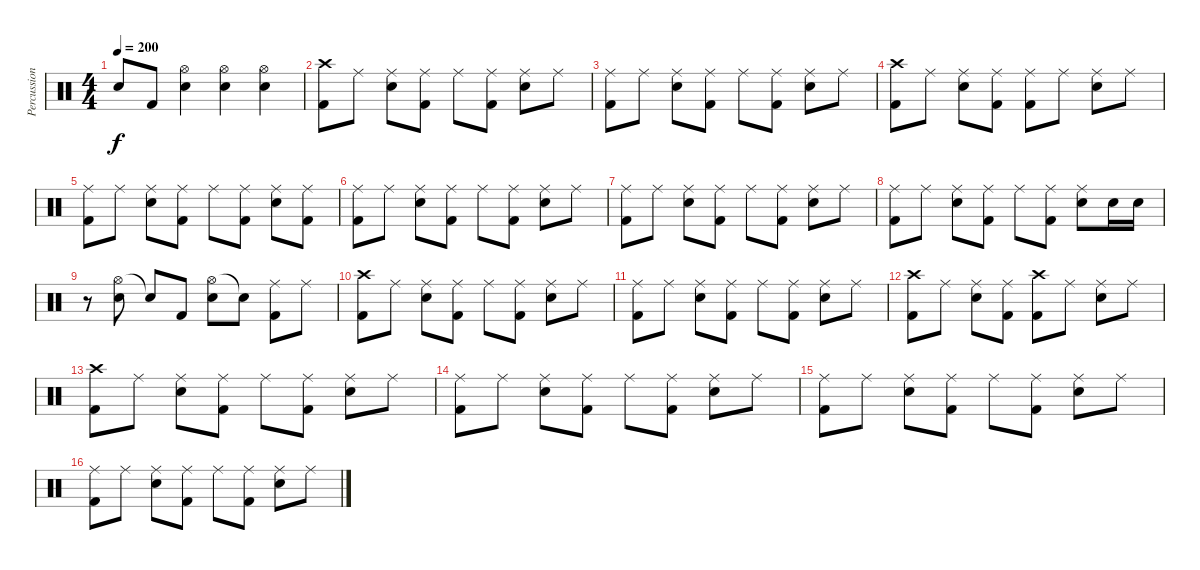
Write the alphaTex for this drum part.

\track ("Percussions" "Percussion") {instrument percussion}
\staff {score}
\articulation defaults
\ts (4 4)
\tempo 200
\clef neutral
\ks c "Snare (hit)"{t}.8{dy f} "Kick (hit) 2".8
("Hi-Hat (open)" "Electric Snare (hit)").4 ("Hi-Hat (open)" "Electric Snare (hit)").4 ("Hi-Hat (open)" "Electric Snare (hit)").4 |
("Crash high (hit)" "Kick (hit) 2").8 "Ride (middle)".8 ("Ride (middle)" "Electric Snare (hit)").8 ("Ride (middle)" "Kick (hit) 2").8 "Ride (middle)".8 ("Ride (middle)" "Kick (hit) 2").8 ("Ride (middle)" "Electric Snare (hit)").8 "Ride (middle)".8 |
("Ride (middle)" "Kick (hit) 2").8 "Ride (middle)".8 ("Ride (middle)" "Electric Snare (hit)").8 ("Ride (middle)" "Kick (hit) 2").8 "Ride (middle)".8 ("Ride (middle)" "Kick (hit) 2").8 ("Ride (middle)" "Electric Snare (hit)").8 "Ride (middle)".8 |
("Crash high (hit)" "Kick (hit) 2").8 "Ride (middle)".8 ("Ride (middle)" "Electric Snare (hit)").8 ("Ride (middle)" "Kick (hit) 2").8 ("Ride (middle)" "Kick (hit) 2").8 "Ride (middle)".8 ("Ride (middle)" "Electric Snare (hit)").8 "Ride (middle)".8 |
("Ride (middle)" "Kick (hit) 2").8 "Ride (middle)".8 ("Ride (middle)" "Electric Snare (hit)").8 ("Ride (middle)" "Kick (hit) 2").8 "Ride (middle)".8 ("Ride (middle)" "Kick (hit) 2").8 ("Ride (middle)" "Electric Snare (hit)").8 ("Ride (middle)" "Kick (hit) 2").8 |
("Ride (middle)" "Kick (hit) 2").8 "Ride (middle)".8 ("Ride (middle)" "Electric Snare (hit)").8 ("Ride (middle)" "Kick (hit) 2").8 "Ride (middle)".8 ("Ride (middle)" "Kick (hit) 2").8 ("Ride (middle)" "Electric Snare (hit)").8 "Ride (middle)".8 |
("Ride (middle)" "Kick (hit) 2").8 "Ride (middle)".8 ("Ride (middle)" "Electric Snare (hit)").8 ("Ride (middle)" "Kick (hit) 2").8 "Ride (middle)".8 ("Ride (middle)" "Kick (hit) 2").8 ("Ride (middle)" "Electric Snare (hit)").8 "Ride (middle)".8 |
("Ride (middle)" "Kick (hit) 2").8 "Ride (middle)".8 ("Ride (middle)" "Electric Snare (hit)").8 ("Ride (middle)" "Kick (hit) 2").8 "Ride (middle)".8 ("Ride (middle)" "Kick (hit) 2").8 ("Ride (middle)" "Electric Snare (hit)").8 "Electric Snare (hit)".16 "Electric Snare (hit)".16 |
r.8 ("Hi-Hat (open)" "Electric Snare (hit)").8 "Snare (hit)"{t}.8 "Kick (hit) 2".8 ("Hi-Hat (open)" "Electric Snare (hit)").8 "Snare (hit)"{t}.8 ("Ride (middle)" "Kick (hit) 2").8 "Ride (middle)".8 |
("Crash high (hit)" "Kick (hit) 2").8 "Ride (middle)".8 ("Ride (middle)" "Electric Snare (hit)").8 ("Ride (middle)" "Kick (hit) 2").8 "Ride (middle)".8 ("Ride (middle)" "Kick (hit) 2").8 ("Ride (middle)" "Electric Snare (hit)").8 "Ride (middle)".8 |
("Ride (middle)" "Kick (hit) 2").8 "Ride (middle)".8 ("Ride (middle)" "Electric Snare (hit)").8 ("Ride (middle)" "Kick (hit) 2").8 "Ride (middle)".8 ("Ride (middle)" "Kick (hit) 2").8 ("Ride (middle)" "Electric Snare (hit)").8 "Ride (middle)".8 |
("Crash high (hit)" "Kick (hit) 2").8 "Ride (middle)".8 ("Ride (middle)" "Electric Snare (hit)").8 ("Ride (middle)" "Kick (hit) 2").8 ("Crash high (hit)" "Kick (hit) 2").8 "Ride (middle)".8 ("Ride (middle)" "Electric Snare (hit)").8 "Ride (middle)".8 |
("Crash high (hit)" "Kick (hit) 2").8 "Ride (middle)".8 ("Ride (middle)" "Electric Snare (hit)").8 ("Ride (middle)" "Kick (hit) 2").8 "Ride (middle)".8 ("Ride (middle)" "Kick (hit) 2").8 ("Ride (middle)" "Electric Snare (hit)").8 "Ride (middle)".8 |
("Ride (middle)" "Kick (hit) 2").8 "Ride (middle)".8 ("Ride (middle)" "Electric Snare (hit)").8 ("Ride (middle)" "Kick (hit) 2").8 "Ride (middle)".8 ("Ride (middle)" "Kick (hit) 2").8 ("Ride (middle)" "Electric Snare (hit)").8 "Ride (middle)".8 |
("Ride (middle)" "Kick (hit) 2").8 "Ride (middle)".8 ("Ride (middle)" "Electric Snare (hit)").8 ("Ride (middle)" "Kick (hit) 2").8 "Ride (middle)".8 ("Ride (middle)" "Kick (hit) 2").8 ("Ride (middle)" "Electric Snare (hit)").8 "Ride (middle)".8 |
("Ride (middle)" "Kick (hit) 2").8 "Ride (middle)".8 ("Ride (middle)" "Electric Snare (hit)").8 ("Ride (middle)" "Kick (hit) 2").8 "Ride (middle)".8 ("Ride (middle)" "Kick (hit) 2").8 ("Ride (middle)" "Electric Snare (hit)").8 "Ride (middle)".8
